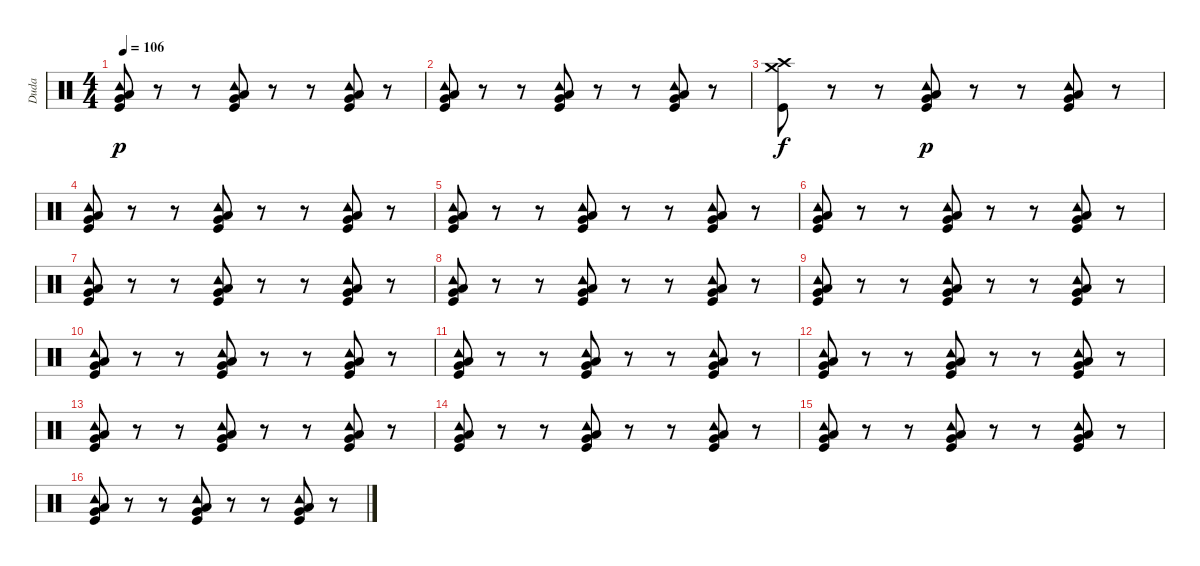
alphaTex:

\track ("Duda" "Duda") {instrument percussion}
\staff {score}
\articulation defaults
\ts (4 4)
\tempo 106
\clef neutral
\ks c
("Tambourine (hit)" "Low Floor Tom (hit)" "Very Low Tom (hit)" "Kick (hit)").8{dy p} r.8 r.8 ("Tambourine (hit)" "Low Floor Tom (hit)" "Very Low Tom (hit)" "Kick (hit)").8 r.8 r.8 ("Tambourine (hit)" "Low Floor Tom (hit)" "Very Low Tom (hit)" "Kick (hit)").8 r.8 |
("Tambourine (hit)" "Low Floor Tom (hit)" "Very Low Tom (hit)" "Kick (hit)").8 r.8 r.8 ("Tambourine (hit)" "Low Floor Tom (hit)" "Very Low Tom (hit)" "Kick (hit)").8 r.8 r.8 ("Tambourine (hit)" "Low Floor Tom (hit)" "Very Low Tom (hit)" "Kick (hit)").8 r.8 |
("Crash medium (hit)" "Crash high (hit)" "Kick (hit)").8{dy f} r.8 r.8 ("Tambourine (hit)" "Low Floor Tom (hit)" "Very Low Tom (hit)" "Kick (hit)").8{dy p} r.8 r.8 ("Tambourine (hit)" "Low Floor Tom (hit)" "Very Low Tom (hit)" "Kick (hit)").8 r.8 |
("Tambourine (hit)" "Low Floor Tom (hit)" "Very Low Tom (hit)" "Kick (hit)").8 r.8 r.8 ("Tambourine (hit)" "Low Floor Tom (hit)" "Very Low Tom (hit)" "Kick (hit)").8 r.8 r.8 ("Tambourine (hit)" "Low Floor Tom (hit)" "Very Low Tom (hit)" "Kick (hit)").8 r.8 |
("Tambourine (hit)" "Low Floor Tom (hit)" "Very Low Tom (hit)" "Kick (hit)").8 r.8 r.8 ("Tambourine (hit)" "Low Floor Tom (hit)" "Very Low Tom (hit)" "Kick (hit)").8 r.8 r.8 ("Tambourine (hit)" "Low Floor Tom (hit)" "Very Low Tom (hit)" "Kick (hit)").8 r.8 |
("Tambourine (hit)" "Low Floor Tom (hit)" "Very Low Tom (hit)" "Kick (hit)").8 r.8 r.8 ("Tambourine (hit)" "Low Floor Tom (hit)" "Very Low Tom (hit)" "Kick (hit)").8 r.8 r.8 ("Tambourine (hit)" "Low Floor Tom (hit)" "Very Low Tom (hit)" "Kick (hit)").8 r.8 |
("Tambourine (hit)" "Low Floor Tom (hit)" "Very Low Tom (hit)" "Kick (hit)").8 r.8 r.8 ("Tambourine (hit)" "Low Floor Tom (hit)" "Very Low Tom (hit)" "Kick (hit)").8 r.8 r.8 ("Tambourine (hit)" "Low Floor Tom (hit)" "Very Low Tom (hit)" "Kick (hit)").8 r.8 |
("Tambourine (hit)" "Low Floor Tom (hit)" "Very Low Tom (hit)" "Kick (hit)").8 r.8 r.8 ("Tambourine (hit)" "Low Floor Tom (hit)" "Very Low Tom (hit)" "Kick (hit)").8 r.8 r.8 ("Tambourine (hit)" "Low Floor Tom (hit)" "Very Low Tom (hit)" "Kick (hit)").8 r.8 |
("Tambourine (hit)" "Low Floor Tom (hit)" "Very Low Tom (hit)" "Kick (hit)").8 r.8 r.8 ("Tambourine (hit)" "Low Floor Tom (hit)" "Very Low Tom (hit)" "Kick (hit)").8 r.8 r.8 ("Tambourine (hit)" "Low Floor Tom (hit)" "Very Low Tom (hit)" "Kick (hit)").8 r.8 |
("Tambourine (hit)" "Low Floor Tom (hit)" "Very Low Tom (hit)" "Kick (hit)").8 r.8 r.8 ("Tambourine (hit)" "Low Floor Tom (hit)" "Very Low Tom (hit)" "Kick (hit)").8 r.8 r.8 ("Tambourine (hit)" "Low Floor Tom (hit)" "Very Low Tom (hit)" "Kick (hit)").8 r.8 |
("Tambourine (hit)" "Low Floor Tom (hit)" "Very Low Tom (hit)" "Kick (hit)").8 r.8 r.8 ("Tambourine (hit)" "Low Floor Tom (hit)" "Very Low Tom (hit)" "Kick (hit)").8 r.8 r.8 ("Tambourine (hit)" "Low Floor Tom (hit)" "Very Low Tom (hit)" "Kick (hit)").8 r.8 |
("Tambourine (hit)" "Low Floor Tom (hit)" "Very Low Tom (hit)" "Kick (hit)").8 r.8 r.8 ("Tambourine (hit)" "Low Floor Tom (hit)" "Very Low Tom (hit)" "Kick (hit)").8 r.8 r.8 ("Tambourine (hit)" "Low Floor Tom (hit)" "Very Low Tom (hit)" "Kick (hit)").8 r.8 |
("Tambourine (hit)" "Low Floor Tom (hit)" "Very Low Tom (hit)" "Kick (hit)").8 r.8 r.8 ("Tambourine (hit)" "Low Floor Tom (hit)" "Very Low Tom (hit)" "Kick (hit)").8 r.8 r.8 ("Tambourine (hit)" "Low Floor Tom (hit)" "Very Low Tom (hit)" "Kick (hit)").8 r.8 |
("Tambourine (hit)" "Low Floor Tom (hit)" "Very Low Tom (hit)" "Kick (hit)").8 r.8 r.8 ("Tambourine (hit)" "Low Floor Tom (hit)" "Very Low Tom (hit)" "Kick (hit)").8 r.8 r.8 ("Tambourine (hit)" "Low Floor Tom (hit)" "Very Low Tom (hit)" "Kick (hit)").8 r.8 |
("Tambourine (hit)" "Low Floor Tom (hit)" "Very Low Tom (hit)" "Kick (hit)").8 r.8 r.8 ("Tambourine (hit)" "Low Floor Tom (hit)" "Very Low Tom (hit)" "Kick (hit)").8 r.8 r.8 ("Tambourine (hit)" "Low Floor Tom (hit)" "Very Low Tom (hit)" "Kick (hit)").8 r.8 |
("Tambourine (hit)" "Low Floor Tom (hit)" "Very Low Tom (hit)" "Kick (hit)").8 r.8 r.8 ("Tambourine (hit)" "Low Floor Tom (hit)" "Very Low Tom (hit)" "Kick (hit)").8 r.8 r.8 ("Tambourine (hit)" "Low Floor Tom (hit)" "Very Low Tom (hit)" "Kick (hit)").8 r.8
